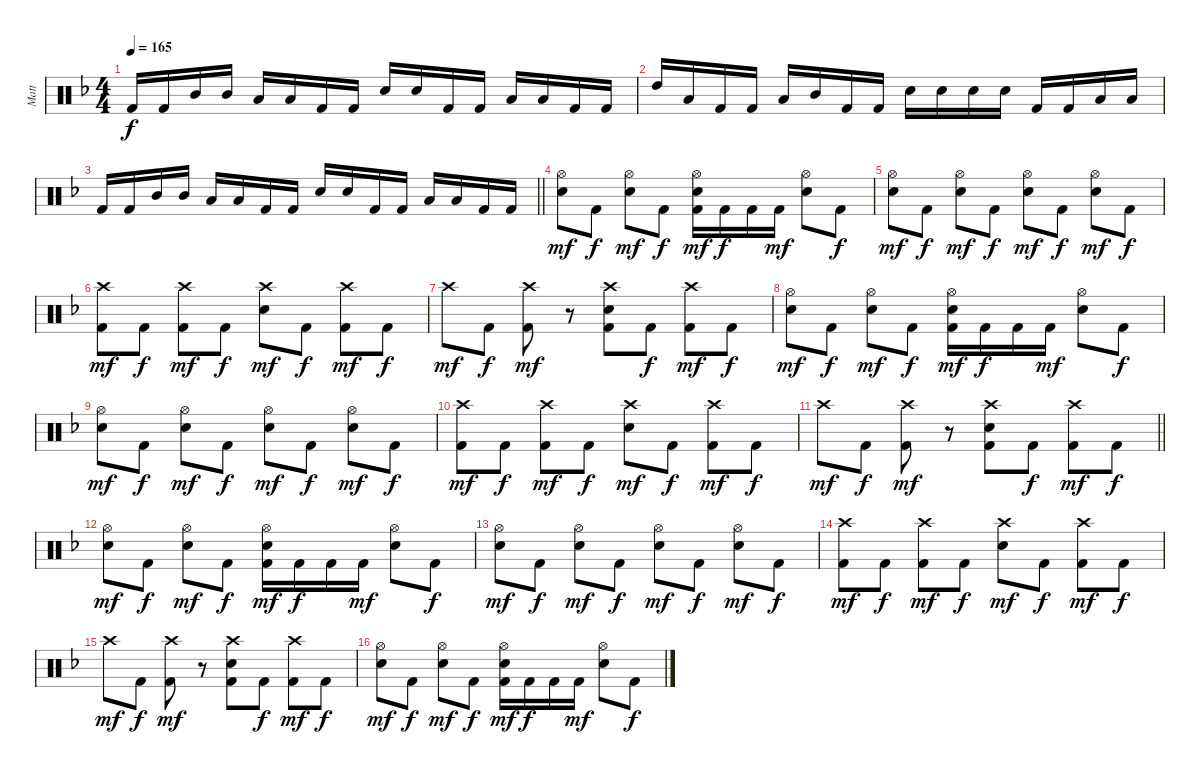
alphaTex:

\track ("Matt" "Matt") {instrument percussion}
\staff {score}
\articulation defaults
\ts (4 4)
\tempo 165
\clef neutral
\ks f "Kick (hit) 2".16{dy f} "Kick (hit) 2".16 "Mid Tom (hit)".16 "Mid Tom (hit)".16 "Low Tom (hit)".16 "Low Tom (hit)".16 "Kick (hit) 2".16 "Kick (hit) 2".16 "Electric Snare (hit)".16 "Electric Snare (hit)".16 "Kick (hit) 2".16 "Kick (hit) 2".16 "Low Tom (hit)".16 "Low Tom (hit)".16 "Kick (hit) 2".16 "Kick (hit) 2".16
|
"High Tom (hit)".16 "Low Tom (hit)".16 "Kick (hit) 2".16 "Kick (hit) 2".16 "Low Tom (hit)".16 "Mid Tom (hit)".16 "Kick (hit) 2".16 "Kick (hit) 2".16 "Electric Snare (hit)".16 "Electric Snare (hit)".16 "Electric Snare (hit)".16 "Electric Snare (hit)".16 "Kick (hit) 2".16 "Kick (hit) 2".16 "Low Tom (hit)".16 "Low Tom (hit)".16 |
\barLineRight lightlight "Kick (hit) 2".16 "Kick (hit) 2".16 "Mid Tom (hit)".16 "Mid Tom (hit)".16 "Low Tom (hit)".16 "Low Tom (hit)".16 "Kick (hit) 2".16 "Kick (hit) 2".16 "Electric Snare (hit)".16 "Electric Snare (hit)".16 "Kick (hit) 2".16 "Kick (hit) 2".16 "Low Tom (hit)".16 "Low Tom (hit)".16 "Kick (hit) 2".16 "Kick (hit) 2".16
|
("Hi-Hat (open)" "Electric Snare (hit)").8{dy mf} "Kick (hit) 2".8{dy f} ("Hi-Hat (open)" "Electric Snare (hit)").8{dy mf} "Kick (hit) 2".8{dy f} ("Hi-Hat (open)" "Electric Snare (hit)" "Kick (hit) 2").16{dy mf} "Kick (hit) 2".16{dy f} "Kick (hit) 2".16 "Kick (hit) 2".16{dy mf} ("Hi-Hat (open)" "Electric Snare (hit)").8 "Kick (hit) 2".8{dy f} |
("Hi-Hat (open)" "Electric Snare (hit)").8{dy mf} "Kick (hit) 2".8{dy f} ("Hi-Hat (open)" "Electric Snare (hit)").8{dy mf} "Kick (hit) 2".8{dy f} ("Hi-Hat (open)" "Electric Snare (hit)").8{dy mf} "Kick (hit) 2".8{dy f} ("Hi-Hat (open)" "Electric Snare (hit)").8{dy mf} "Kick (hit) 2".8{dy f} |
("Crash high (hit)" "Kick (hit) 2").8{dy mf} "Kick (hit) 2".8{dy f} ("Crash high (hit)" "Kick (hit) 2").8{dy mf} "Kick (hit) 2".8{dy f} ("Crash high (hit)" "Electric Snare (hit)").8{dy mf} "Kick (hit) 2".8{dy f} ("Crash high (hit)" "Kick (hit) 2").8{dy mf} "Kick (hit) 2".8{dy f} |
"Crash high (hit)".8{dy mf} "Kick (hit) 2".8{dy f} ("Crash high (hit)" "Kick (hit) 2").8{dy mf} r.8 ("Crash high (hit)" "Electric Snare (hit)" "Kick (hit) 2").8 "Kick (hit) 2".8{dy f} ("Crash high (hit)" "Kick (hit) 2").8{dy mf} "Kick (hit) 2".8{dy f} |
("Hi-Hat (open)" "Electric Snare (hit)").8{dy mf} "Kick (hit) 2".8{dy f} ("Hi-Hat (open)" "Electric Snare (hit)").8{dy mf} "Kick (hit) 2".8{dy f} ("Hi-Hat (open)" "Electric Snare (hit)" "Kick (hit) 2").16{dy mf} "Kick (hit) 2".16{dy f} "Kick (hit) 2".16 "Kick (hit) 2".16{dy mf} ("Hi-Hat (open)" "Electric Snare (hit)").8 "Kick (hit) 2".8{dy f} |
("Hi-Hat (open)" "Electric Snare (hit)").8{dy mf} "Kick (hit) 2".8{dy f} ("Hi-Hat (open)" "Electric Snare (hit)").8{dy mf} "Kick (hit) 2".8{dy f} ("Hi-Hat (open)" "Electric Snare (hit)").8{dy mf} "Kick (hit) 2".8{dy f} ("Hi-Hat (open)" "Electric Snare (hit)").8{dy mf} "Kick (hit) 2".8{dy f} |
("Crash high (hit)" "Kick (hit) 2").8{dy mf} "Kick (hit) 2".8{dy f} ("Crash high (hit)" "Kick (hit) 2").8{dy mf} "Kick (hit) 2".8{dy f} ("Crash high (hit)" "Electric Snare (hit)").8{dy mf} "Kick (hit) 2".8{dy f} ("Crash high (hit)" "Kick (hit) 2").8{dy mf} "Kick (hit) 2".8{dy f} |
\barLineRight lightlight "Crash high (hit)".8{dy mf} "Kick (hit) 2".8{dy f}
("Crash high (hit)" "Kick (hit) 2").8{dy mf} r.8 ("Crash high (hit)" "Electric Snare (hit)" "Kick (hit) 2").8 "Kick (hit) 2".8{dy f} ("Crash high (hit)" "Kick (hit) 2").8{dy mf} "Kick (hit) 2".8{dy f} |
("Hi-Hat (open)" "Electric Snare (hit)").8{dy mf} "Kick (hit) 2".8{dy f} ("Hi-Hat (open)" "Electric Snare (hit)").8{dy mf} "Kick (hit) 2".8{dy f} ("Hi-Hat (open)" "Electric Snare (hit)" "Kick (hit) 2").16{dy mf} "Kick (hit) 2".16{dy f} "Kick (hit) 2".16 "Kick (hit) 2".16{dy mf} ("Hi-Hat (open)" "Electric Snare (hit)").8 "Kick (hit) 2".8{dy f} |
("Hi-Hat (open)" "Electric Snare (hit)").8{dy mf} "Kick (hit) 2".8{dy f} ("Hi-Hat (open)" "Electric Snare (hit)").8{dy mf} "Kick (hit) 2".8{dy f} ("Hi-Hat (open)" "Electric Snare (hit)").8{dy mf} "Kick (hit) 2".8{dy f} ("Hi-Hat (open)" "Electric Snare (hit)").8{dy mf} "Kick (hit) 2".8{dy f} |
("Crash high (hit)" "Kick (hit) 2").8{dy mf} "Kick (hit) 2".8{dy f} ("Crash high (hit)" "Kick (hit) 2").8{dy mf} "Kick (hit) 2".8{dy f} ("Crash high (hit)" "Electric Snare (hit)").8{dy mf} "Kick (hit) 2".8{dy f} ("Crash high (hit)" "Kick (hit) 2").8{dy mf} "Kick (hit) 2".8{dy f} |
"Crash high (hit)".8{dy mf} "Kick (hit) 2".8{dy f} ("Crash high (hit)" "Kick (hit) 2").8{dy mf} r.8 ("Crash high (hit)" "Electric Snare (hit)" "Kick (hit) 2").8 "Kick (hit) 2".8{dy f} ("Crash high (hit)" "Kick (hit) 2").8{dy mf} "Kick (hit) 2".8{dy f} |
("Hi-Hat (open)" "Electric Snare (hit)").8{dy mf} "Kick (hit) 2".8{dy f} ("Hi-Hat (open)" "Electric Snare (hit)").8{dy mf} "Kick (hit) 2".8{dy f} ("Hi-Hat (open)" "Electric Snare (hit)" "Kick (hit) 2").16{dy mf} "Kick (hit) 2".16{dy f} "Kick (hit) 2".16 "Kick (hit) 2".16{dy mf} ("Hi-Hat (open)" "Electric Snare (hit)").8 "Kick (hit) 2".8{dy f}
